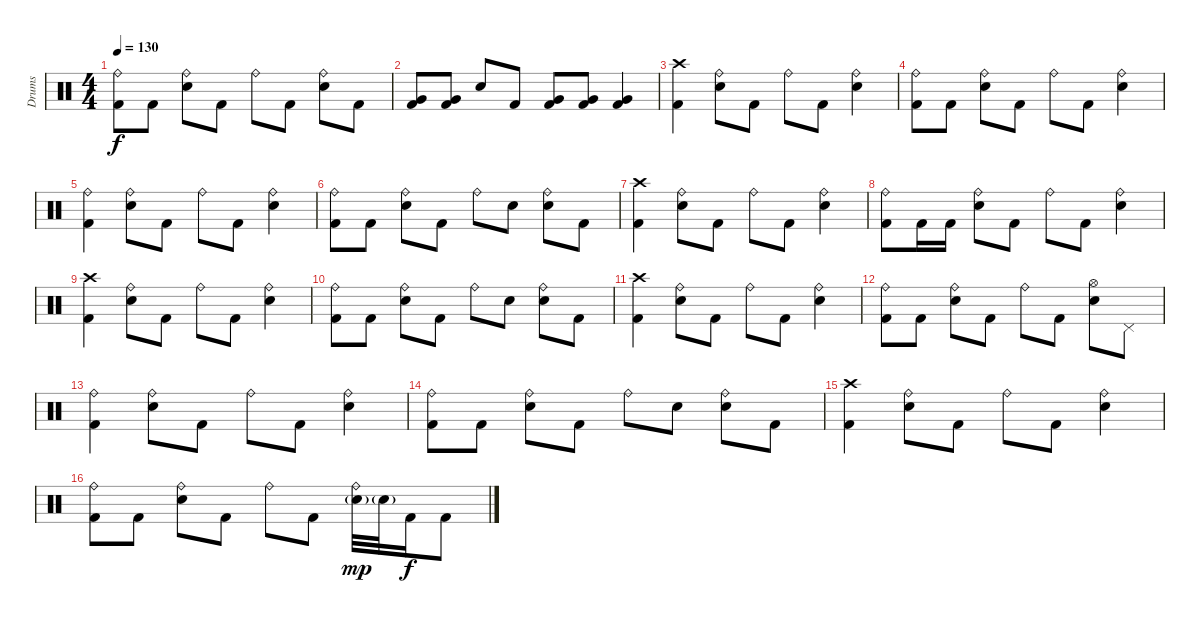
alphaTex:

\track ("Drums" "Drums") {instrument percussion}
\staff {score}
\articulation defaults
\ts (4 4)
\tempo 130
\clef neutral
\ks c
("Ride (bell)" "Kick (hit) 2").8{dy f} "Kick (hit) 2".8 ("Ride (bell)" "Electric Snare (hit)").8 "Kick (hit) 2".8 "Ride (bell)".8 "Kick (hit) 2".8 ("Ride (bell)" "Electric Snare (hit)").8 "Kick (hit) 2".8 |
("Very Low Tom (hit)" "Kick (hit) 2").8 ("Very Low Tom (hit)" "Kick (hit) 2").8 "Electric Snare (hit)".8 "Kick (hit) 2".8 ("Very Low Tom (hit)" "Kick (hit) 2").8 ("Very Low Tom (hit)" "Kick (hit) 2").8 ("Very Low Tom (hit)" "Kick (hit) 2").4 |
("Crash high (hit)" "Kick (hit) 2").4 ("Ride (bell)" "Electric Snare (hit)").8 "Kick (hit) 2".8 "Ride (bell)".8 "Kick (hit) 2".8 ("Ride (bell)" "Electric Snare (hit)").4 |
("Ride (bell)" "Kick (hit) 2").8 "Kick (hit) 2".8 ("Ride (bell)" "Electric Snare (hit)").8 "Kick (hit) 2".8 "Ride (bell)".8 "Kick (hit) 2".8 ("Ride (bell)" "Electric Snare (hit)").4 |
("Ride (bell)" "Kick (hit) 2").4 ("Ride (bell)" "Electric Snare (hit)").8 "Kick (hit) 2".8 "Ride (bell)".8 "Kick (hit) 2".8 ("Ride (bell)" "Electric Snare (hit)").4 |
("Ride (bell)" "Kick (hit) 2").8 "Kick (hit) 2".8 ("Ride (bell)" "Electric Snare (hit)").8 "Kick (hit) 2".8 "Ride (bell)".8 "Electric Snare (hit)".8 ("Ride (bell)" "Electric Snare (hit)").8 "Kick (hit) 2".8 |
("Crash high (hit)" "Kick (hit) 2").4 ("Ride (bell)" "Electric Snare (hit)").8 "Kick (hit) 2".8 "Ride (bell)".8 "Kick (hit) 2".8 ("Ride (bell)" "Electric Snare (hit)").4 |
("Ride (bell)" "Kick (hit) 2").8 "Kick (hit) 2".16 "Kick (hit) 2".16 ("Ride (bell)" "Electric Snare (hit)").8 "Kick (hit) 2".8 "Ride (bell)".8 "Kick (hit) 2".8 ("Ride (bell)" "Electric Snare (hit)").4 |
("Crash high (hit)" "Kick (hit) 2").4 ("Ride (bell)" "Electric Snare (hit)").8 "Kick (hit) 2".8 "Ride (bell)".8 "Kick (hit) 2".8 ("Ride (bell)" "Electric Snare (hit)").4 |
("Ride (bell)" "Kick (hit) 2").8 "Kick (hit) 2".8 ("Ride (bell)" "Electric Snare (hit)").8 "Kick (hit) 2".8 "Ride (bell)".8 "Electric Snare (hit)".8 ("Ride (bell)" "Electric Snare (hit)").8 "Kick (hit) 2".8 |
("Crash high (hit)" "Kick (hit) 2").4 ("Ride (bell)" "Electric Snare (hit)").8 "Kick (hit) 2".8 "Ride (bell)".8 "Kick (hit) 2".8 ("Ride (bell)" "Electric Snare (hit)").4 |
("Ride (bell)" "Kick (hit) 2").8 "Kick (hit) 2".8 ("Ride (bell)" "Electric Snare (hit)").8 "Kick (hit) 2".8 "Ride (bell)".8 "Kick (hit) 2".8 ("Hi-Hat (open)" "Electric Snare (hit)").8 "Pedal Hi-Hat (hit)".8 |
("Ride (bell)" "Kick (hit) 2").4 ("Ride (bell)" "Electric Snare (hit)").8 "Kick (hit) 2".8 "Ride (bell)".8 "Kick (hit) 2".8 ("Ride (bell)" "Electric Snare (hit)").4 |
("Ride (bell)" "Kick (hit) 2").8 "Kick (hit) 2".8 ("Ride (bell)" "Electric Snare (hit)").8 "Kick (hit) 2".8 "Ride (bell)".8 "Electric Snare (hit)".8 ("Ride (bell)" "Electric Snare (hit)").8 "Kick (hit) 2".8 |
("Crash high (hit)" "Kick (hit) 2").4 ("Ride (bell)" "Electric Snare (hit)").8 "Kick (hit) 2".8 "Ride (bell)".8 "Kick (hit) 2".8 ("Ride (bell)" "Electric Snare (hit)").4 |
("Ride (bell)" "Kick (hit) 2").8 "Kick (hit) 2".8 ("Ride (bell)" "Electric Snare (hit)").8 "Kick (hit) 2".8 "Ride (bell)".8 "Kick (hit) 2".8 ("Ride (bell)" "Electric Snare (hit)"{g}).32{dy mp} "Electric Snare (hit)"{g}.32 "Kick (hit) 2".16{dy f} "Kick (hit) 2".8
